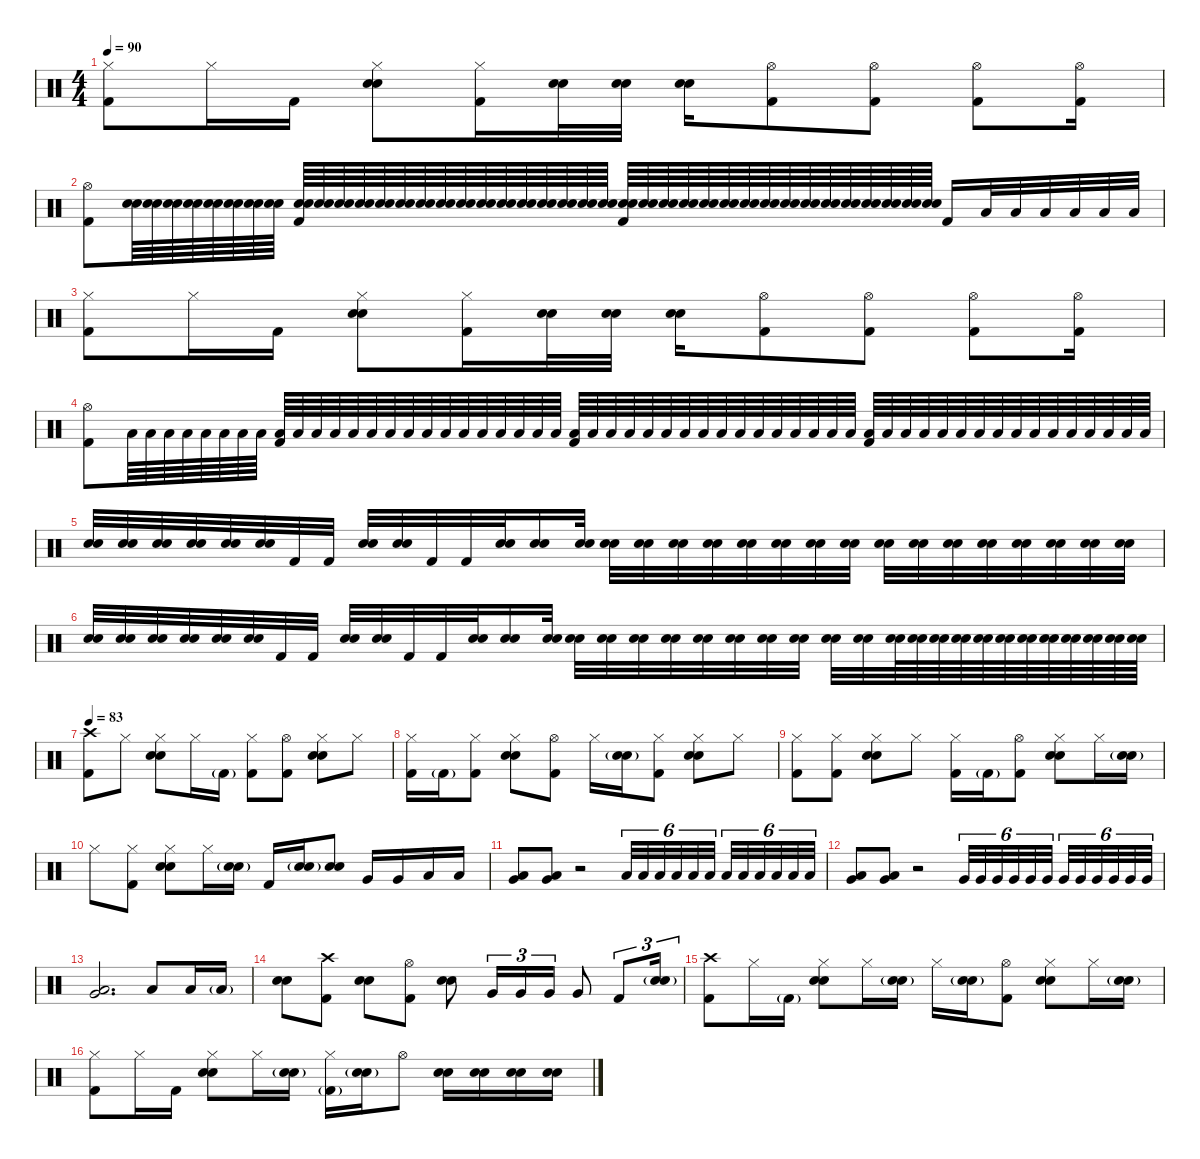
\defaultSystemsLayout 4
\hideDynamics
\bracketExtendMode nobrackets
\singleTrackTrackNamePolicy hidden
\multiTrackTrackNamePolicy hidden
\firstSystemTrackNameMode fullname
\firstSystemTrackNameOrientation horizontal
\otherSystemsTrackNameOrientation horizontal
\track ("Batterie" "drm.") {instrument percussion}
\staff {score}
\articulation defaults
\ts (4 4)
\tempo 90
\clef neutral
\ks c
("Hi-Hat (closed)" "Kick (hit) 2").8{dy f beam Down} "Hi-Hat (closed)".16{beam Down} "Kick (hit) 2".16{dy mf beam Down} ("Hi-Hat (closed)" "Snare (hit) 2" "Snare (hit) 2").8{dy f beam Down} ("Hi-Hat (closed)" "Kick (hit) 2").16{beam Down} ("Snare (hit) 2" "Snare (hit) 2").32{dy p beam Down} ("Snare (hit) 2" "Snare (hit) 2").32{dy mp beam Down} ("Snare (hit) 2" "Snare (hit) 2").16{dy f beam Down} ("Hi-Hat (open)" "Kick (hit) 2").8{beam Down} ("Hi-Hat (open)" "Kick (hit) 2").8{beam Down} ("Hi-Hat (open)" "Kick (hit) 2").8{beam Down} ("Hi-Hat (open)" "Kick (hit) 2").16{beam Down} |
("Hi-Hat (open)" "Kick (hit) 2").8{beam Down} ("Snare (hit) 2" "Snare (hit) 2").64{dy pp beam Down} ("Snare (hit) 2" "Snare (hit) 2").64{beam Down} ("Snare (hit) 2" "Snare (hit) 2").64{beam Down} ("Snare (hit) 2" "Snare (hit) 2").64{beam Down} ("Snare (hit) 2" "Snare (hit) 2").64{beam Down} ("Snare (hit) 2" "Snare (hit) 2").64{beam Down} ("Snare (hit) 2" "Snare (hit) 2").64{beam Down} ("Snare (hit) 2" "Snare (hit) 2").64{beam Down} ("Snare (hit) 2" "Snare (hit) 2" "Kick (hit) 2").64{beam Up} ("Snare (hit) 2" "Snare (hit) 2").64{beam Up} ("Snare (hit) 2" "Snare (hit) 2").64{beam Up} ("Snare (hit) 2" "Snare (hit) 2").64{beam Up} ("Snare (hit) 2" "Snare (hit) 2").64{dy p beam Up} ("Snare (hit) 2" "Snare (hit) 2").64{beam Up} ("Snare (hit) 2" "Snare (hit) 2").64{beam Up} ("Snare (hit) 2" "Snare (hit) 2").64{beam Up} ("Snare (hit) 2" "Snare (hit) 2").64{beam Up} ("Snare (hit) 2" "Snare (hit) 2").64{beam Up} ("Snare (hit) 2" "Snare (hit) 2").64{beam Up} ("Snare (hit) 2" "Snare (hit) 2").64{beam Up} ("Snare (hit) 2" "Snare (hit) 2").64{beam Up} ("Snare (hit) 2" "Snare (hit) 2").64{beam Up} ("Snare (hit) 2" "Snare (hit) 2").64{beam Up} ("Snare (hit) 2" "Snare (hit) 2").64{beam Up} ("Snare (hit) 2" "Snare (hit) 2" "Kick (hit) 2").64{beam Up} ("Snare (hit) 2" "Snare (hit) 2").64{beam Up} ("Snare (hit) 2" "Snare (hit) 2").64{beam Up} ("Snare (hit) 2" "Snare (hit) 2").64{dy mp beam Up} ("Snare (hit) 2" "Snare (hit) 2").64{beam Up} ("Snare (hit) 2" "Snare (hit) 2").64{beam Up} ("Snare (hit) 2" "Snare (hit) 2").64{dy mf beam Up} ("Snare (hit) 2" "Snare (hit) 2").64{beam Up} ("Snare (hit) 2" "Snare (hit) 2").64{beam Up} ("Snare (hit) 2" "Snare (hit) 2").64{beam Up} ("Snare (hit) 2" "Snare (hit) 2").64{beam Up} ("Snare (hit) 2" "Snare (hit) 2").64{beam Up} ("Snare (hit) 2" "Snare (hit) 2").64{dy f beam Up} ("Snare (hit) 2" "Snare (hit) 2").64{beam Up} ("Snare (hit) 2" "Snare (hit) 2").64{beam Up} ("Snare (hit) 2" "Snare (hit) 2").64{beam Up} "Kick (hit) 2".16{dy mf beam Up} "Low Floor Tom (hit)".32{dy fff beam Up} "Low Floor Tom (hit)".32{beam Up} "Low Tom (hit)".32{beam Up} "Low Tom (hit)".32{beam Up} "Low Tom (hit)".32{beam Up} "Low Tom (hit)".32{beam Up} |
("Hi-Hat (closed)" "Kick (hit) 2").8{dy f beam Down} "Hi-Hat (closed)".16{beam Down} "Kick (hit) 2".16{dy mf beam Down} ("Hi-Hat (closed)" "Snare (hit) 2" "Snare (hit) 2").8{dy f beam Down} ("Hi-Hat (closed)" "Kick (hit) 2").16{beam Down} ("Snare (hit) 2" "Snare (hit) 2").32{dy p beam Down} ("Snare (hit) 2" "Snare (hit) 2").32{dy mp beam Down} ("Snare (hit) 2" "Snare (hit) 2").16{dy f beam Down} ("Hi-Hat (open)" "Kick (hit) 2").8{beam Down} ("Hi-Hat (open)" "Kick (hit) 2").8{beam Down} ("Hi-Hat (open)" "Kick (hit) 2").8{beam Down} ("Hi-Hat (open)" "Kick (hit) 2").16{beam Down} |
("Hi-Hat (open)" "Kick (hit) 2").8{beam Down} "Low Floor Tom (hit)".64{dy pp beam Down} "Low Floor Tom (hit)".64{beam Down} "Low Floor Tom (hit)".64{beam Down} "Low Floor Tom (hit)".64{beam Down} "Low Floor Tom (hit)".64{beam Down} "Low Floor Tom (hit)".64{beam Down} "Low Floor Tom (hit)".64{beam Down} "Low Floor Tom (hit)".64{beam Down} ("Low Floor Tom (hit)" "Kick (hit) 2").64{beam Up} "Low Floor Tom (hit)".64{dy p beam Up} "Low Floor Tom (hit)".64{beam Up} "Low Floor Tom (hit)".64{beam Up} "Low Floor Tom (hit)".64{beam Up} "Low Floor Tom (hit)".64{beam Up} "Low Floor Tom (hit)".64{beam Up} "Low Floor Tom (hit)".64{beam Up} "Low Floor Tom (hit)".64{beam Up} "Low Floor Tom (hit)".64{beam Up} "Low Floor Tom (hit)".64{beam Up} "Low Floor Tom (hit)".64{beam Up} "Low Floor Tom (hit)".64{beam Up} "Low Floor Tom (hit)".64{dy mp beam Up} "Low Floor Tom (hit)".64{beam Up} "Low Floor Tom (hit)".64{beam Up} ("Low Floor Tom (hit)" "Kick (hit) 2").64{beam Up} "Low Floor Tom (hit)".64{beam Up} "Low Floor Tom (hit)".64{beam Up} "Low Floor Tom (hit)".64{beam Up} "Low Floor Tom (hit)".64{beam Up} "Low Floor Tom (hit)".64{beam Up} "Low Floor Tom (hit)".64{beam Up} "Low Floor Tom (hit)".64{beam Up} "Low Floor Tom (hit)".64{beam Up} "Low Floor Tom (hit)".64{beam Up} "Low Floor Tom (hit)".64{dy mf beam Up} "Low Floor Tom (hit)".64{beam Up} "Low Floor Tom (hit)".64{beam Up} "Low Floor Tom (hit)".64{beam Up} "Low Floor Tom (hit)".64{beam Up} "Low Floor Tom (hit)".64{beam Up} ("Low Floor Tom (hit)" "Kick (hit) 2").64{beam Up} "Low Floor Tom (hit)".64{beam Up} "Low Floor Tom (hit)".64{beam Up} "Low Floor Tom (hit)".64{beam Up} "Low Floor Tom (hit)".64{beam Up} "Low Floor Tom (hit)".64{beam Up} "Low Floor Tom (hit)".64{beam Up} "Low Floor Tom (hit)".64{dy f beam Up} "Low Floor Tom (hit)".64{beam Up} "Low Floor Tom (hit)".64{beam Up} "Low Floor Tom (hit)".64{beam Up} "Low Floor Tom (hit)".64{beam Up} "Low Floor Tom (hit)".64{beam Up} "Low Floor Tom (hit)".64{beam Up} "Low Floor Tom (hit)".64{beam Up} "Low Floor Tom (hit)".64{beam Up} |
("Snare (hit) 2" "Snare (hit) 2").32{beam Up} ("Snare (hit) 2" "Snare (hit) 2").32{beam Up} ("Snare (hit) 2" "Snare (hit) 2").32{beam Up} ("Snare (hit) 2" "Snare (hit) 2").32{beam Up} ("Snare (hit) 2" "Snare (hit) 2").32{beam Up} ("Snare (hit) 2" "Snare (hit) 2").32{beam Up} "Kick (hit) 2".32{dy mf beam Up} "Kick (hit) 2".32{beam Up} ("Snare (hit) 2" "Snare (hit) 2").32{dy f beam Up} ("Snare (hit) 2" "Snare (hit) 2").32{beam Up} "Kick (hit) 2".32{dy mf beam Up} "Kick (hit) 2".32{beam Up} ("Snare (hit) 2" "Snare (hit) 2").32{dy f beam Up} ("Snare (hit) 2" "Snare (hit) 2").16{beam Up} ("Snare (hit) 2" "Snare (hit) 2").32{dy mf beam Up} ("Snare (hit) 2" "Snare (hit) 2").32{dy f beam Down} ("Snare (hit) 2" "Snare (hit) 2").32{beam Down} ("Snare (hit) 2" "Snare (hit) 2").32{dy mf beam Down} ("Snare (hit) 2" "Snare (hit) 2").32{dy mp beam Down} ("Snare (hit) 2" "Snare (hit) 2").32{dy mf beam Down} ("Snare (hit) 2" "Snare (hit) 2").32{dy f beam Down} ("Snare (hit) 2" "Snare (hit) 2").32{beam Down} ("Snare (hit) 2" "Snare (hit) 2").32{dy mf beam Down} ("Snare (hit) 2" "Snare (hit) 2").32{dy mp beam Down} ("Snare (hit) 2" "Snare (hit) 2").32{dy mf beam Down} ("Snare (hit) 2" "Snare (hit) 2").32{dy f beam Down} ("Snare (hit) 2" "Snare (hit) 2").32{dy ff beam Down} ("Snare (hit) 2" "Snare (hit) 2").32{beam Down} ("Snare (hit) 2" "Snare (hit) 2").32{dy f beam Down} ("Snare (hit) 2" "Snare (hit) 2").32{dy mf beam Down} ("Snare (hit) 2" "Snare (hit) 2").32{dy mp beam Down} |
("Snare (hit) 2" "Snare (hit) 2").32{dy mf beam Up} ("Snare (hit) 2" "Snare (hit) 2").32{dy f beam Up} ("Snare (hit) 2" "Snare (hit) 2").32{beam Up} ("Snare (hit) 2" "Snare (hit) 2").32{beam Up} ("Snare (hit) 2" "Snare (hit) 2").32{beam Up} ("Snare (hit) 2" "Snare (hit) 2").32{beam Up} "Kick (hit) 2".32{dy mf beam Up} "Kick (hit) 2".32{beam Up} ("Snare (hit) 2" "Snare (hit) 2").32{dy f beam Up} ("Snare (hit) 2" "Snare (hit) 2").32{beam Up} "Kick (hit) 2".32{dy mf beam Up} "Kick (hit) 2".32{beam Up} ("Snare (hit) 2" "Snare (hit) 2").32{dy f beam Up} ("Snare (hit) 2" "Snare (hit) 2").16{beam Up} ("Snare (hit) 2" "Snare (hit) 2").32{dy mf beam Up} ("Snare (hit) 2" "Snare (hit) 2").32{dy f beam Down} ("Snare (hit) 2" "Snare (hit) 2").32{beam Down} ("Snare (hit) 2" "Snare (hit) 2").32{dy mf beam Down} ("Snare (hit) 2" "Snare (hit) 2").32{dy mp beam Down} ("Snare (hit) 2" "Snare (hit) 2").32{beam Down} ("Snare (hit) 2" "Snare (hit) 2").32{dy mf beam Down} ("Snare (hit) 2" "Snare (hit) 2").32{dy f beam Down} ("Snare (hit) 2" "Snare (hit) 2").32{dy ff beam Down} ("Snare (hit) 2" "Snare (hit) 2").32{dy f beam Down} ("Snare (hit) 2" "Snare (hit) 2").32{beam Down} ("Snare (hit) 2" "Snare (hit) 2").64{beam Down} ("Snare (hit) 2" "Snare (hit) 2").64{beam Down} ("Snare (hit) 2" "Snare (hit) 2").64{beam Down} ("Snare (hit) 2" "Snare (hit) 2").64{beam Down} ("Snare (hit) 2" "Snare (hit) 2").64{dy mf beam Down} ("Snare (hit) 2" "Snare (hit) 2").64{beam Down} ("Snare (hit) 2" "Snare (hit) 2").64{beam Down} ("Snare (hit) 2" "Snare (hit) 2").64{beam Down} ("Snare (hit) 2" "Snare (hit) 2").64{dy mp beam Down} ("Snare (hit) 2" "Snare (hit) 2").64{beam Down} ("Snare (hit) 2" "Snare (hit) 2").64{beam Down} ("Snare (hit) 2" "Snare (hit) 2").64{beam Down} |
\tempo 83
("Crash high (hit)" "Kick (hit) 2").8{beam Down} "Hi-Hat (closed)".8{dy f beam Down} ("Hi-Hat (closed)" "Snare (hit) 2" "Snare (hit) 2").8{beam Down} "Hi-Hat (closed)".16{beam Down} "Kick (hit) 2"{g}.16{dy mf beam Down} ("Hi-Hat (closed)" "Kick (hit) 2").8{dy f beam Down} ("Hi-Hat (open)" "Kick (hit) 2").8{dy mf beam Down} ("Hi-Hat (closed)" "Snare (hit) 2" "Snare (hit) 2").8{dy f beam Down} "Hi-Hat (closed)".8{beam Down} |
("Hi-Hat (closed)" "Kick (hit) 2").16{beam Down} "Kick (hit) 2"{g}.16{beam Down} ("Hi-Hat (closed)" "Kick (hit) 2").8{beam Down} ("Hi-Hat (closed)" "Snare (hit) 2" "Snare (hit) 2").8{beam Down} ("Hi-Hat (open)" "Kick (hit) 2").8{dy mf beam Down} "Hi-Hat (closed)".16{dy f beam Down} ("Snare (hit) 2"{g} "Snare (hit) 2"{g}).16{dy mf beam Down} ("Hi-Hat (closed)" "Kick (hit) 2").8{dy f beam Down} ("Hi-Hat (closed)" "Snare (hit) 2" "Snare (hit) 2").8{beam Down} "Hi-Hat (closed)".8{beam Down} |
("Hi-Hat (closed)" "Kick (hit) 2").8{beam Down} ("Hi-Hat (closed)" "Kick (hit) 2").8{beam Down} ("Hi-Hat (closed)" "Snare (hit) 2" "Snare (hit) 2").8{beam Down} "Hi-Hat (closed)".8{beam Down} ("Hi-Hat (closed)" "Kick (hit) 2").16{beam Down} "Kick (hit) 2"{g}.16{beam Down} ("Hi-Hat (open)" "Kick (hit) 2").8{dy mf beam Down} ("Hi-Hat (closed)" "Snare (hit) 2" "Snare (hit) 2").8{dy f beam Down} "Hi-Hat (closed)".16{beam Down} ("Snare (hit) 2"{g} "Snare (hit) 2"{g}).16{dy mf beam Down} |
"Hi-Hat (closed)".8{dy f beam Down} ("Hi-Hat (closed)" "Kick (hit) 2").8{beam Down} ("Hi-Hat (closed)" "Snare (hit) 2" "Snare (hit) 2").8{beam Down} "Hi-Hat (closed)".16{beam Down} ("Snare (hit) 2"{g} "Snare (hit) 2"{g}).16{beam Down} "Kick (hit) 2".16{dy mf beam Up} ("Snare (hit) 2"{g} "Snare (hit) 2"{g}).16{dy f beam Up} ("Snare (hit) 2" "Snare (hit) 2").8{dy mf beam Up} "Very Low Tom (hit)".16{dy f beam Up} "Very Low Tom (hit)".16{beam Up} "Low Floor Tom (hit)".16{beam Up} "Low Floor Tom (hit)".16{beam Up} |
("Very Low Tom (hit)" "Low Floor Tom (hit)").8{beam Up} ("Very Low Tom (hit)" "Low Floor Tom (hit)").8{beam Up} r.2{beam Up} "Low Floor Tom (hit)".32{tu (6 4) beam Up} "Low Floor Tom (hit)".32{tu (6 4) dy mf beam Up} "Low Floor Tom (hit)".32{tu (6 4) dy mp beam Up} "Low Floor Tom (hit)".32{tu (6 4) dy p beam Up} "Low Floor Tom (hit)".32{tu (6 4) beam Up} "Low Floor Tom (hit)".32{tu (6 4) beam Up} "Low Floor Tom (hit)".32{tu (6 4) beam Up} "Low Floor Tom (hit)".32{tu (6 4) beam Up} "Low Floor Tom (hit)".32{tu (6 4) dy mp beam Up} "Low Floor Tom (hit)".32{tu (6 4) dy mf beam Up} "Low Floor Tom (hit)".32{tu (6 4) beam Up} "Low Floor Tom (hit)".32{tu (6 4) dy f beam Up} |
("Very Low Tom (hit)" "Low Floor Tom (hit)").8{beam Up} ("Very Low Tom (hit)" "Low Floor Tom (hit)").8{beam Up} r.2{beam Up} "Very Low Tom (hit)".32{tu (6 4) beam Up} "Very Low Tom (hit)".32{tu (6 4) dy mf beam Up} "Very Low Tom (hit)".32{tu (6 4) dy mp beam Up} "Very Low Tom (hit)".32{tu (6 4) dy p beam Up} "Very Low Tom (hit)".32{tu (6 4) beam Up} "Very Low Tom (hit)".32{tu (6 4) beam Up} "Very Low Tom (hit)".32{tu (6 4) beam Up} "Very Low Tom (hit)".32{tu (6 4) beam Up} "Very Low Tom (hit)".32{tu (6 4) dy mp beam Up} "Very Low Tom (hit)".32{tu (6 4) dy mf beam Up} "Very Low Tom (hit)".32{tu (6 4) beam Up} "Very Low Tom (hit)".32{tu (6 4) dy f beam Up} |
("Very Low Tom (hit)" "Low Floor Tom (hit)").2{d beam Up} "Low Floor Tom (hit)".8{beam Up} "Low Floor Tom (hit)".16{beam Up} "Low Floor Tom (hit)"{g}.16{beam Up} |
("Snare (hit) 2" "Snare (hit) 2").8{dy mf beam Down} ("Crash high (hit)" "Kick (hit) 2").8{dy mp beam Down} ("Snare (hit) 2" "Snare (hit) 2").8{dy mf beam Down} ("Hi-Hat (open)" "Kick (hit) 2").8{beam Down} ("Snare (hit) 2" "Snare (hit) 2").8{dy mp beam Down} "Very Low Tom (hit)".16{tu (3 2) dy f beam Up} "Very Low Tom (hit)".16{tu (3 2) dy mf beam Up} "Very Low Tom (hit)".16{tu (3 2) beam Up} "Very Low Tom (hit)".8{beam Up} "Kick (hit) 2".8{tu (3 2) beam Up} ("Snare (hit) 2"{g} "Snare (hit) 2"{g}).16{tu (3 2) beam Up} |
("Crash high (hit)" "Kick (hit) 2").8{dy mp beam Down} "Hi-Hat (closed)".16{dy f beam Down} "Kick (hit) 2"{g}.16{beam Down} ("Hi-Hat (closed)" "Snare (hit) 2" "Snare (hit) 2").8{beam Down} "Hi-Hat (closed)".16{beam Down} ("Snare (hit) 2"{g} "Snare (hit) 2"{g}).16{dy mf beam Down} "Hi-Hat (closed)".16{dy f beam Down} ("Snare (hit) 2"{g} "Snare (hit) 2"{g}).16{dy mp beam Down} ("Hi-Hat (open)" "Kick (hit) 2").8{dy mf beam Down} ("Hi-Hat (closed)" "Snare (hit) 2" "Snare (hit) 2").8{dy f beam Down} "Hi-Hat (closed)".16{beam Down} ("Snare (hit) 2"{g} "Snare (hit) 2"{g}).16{dy mp beam Down} |
("Hi-Hat (closed)" "Kick (hit) 2").8{dy f beam Down} "Hi-Hat (closed)".16{beam Down} "Kick (hit) 2".16{dy mf beam Down} ("Hi-Hat (closed)" "Snare (hit) 2" "Snare (hit) 2").8{dy f beam Down} "Hi-Hat (closed)".16{beam Down} ("Snare (hit) 2"{g} "Snare (hit) 2"{g}).16{dy mf beam Down} ("Hi-Hat (closed)" "Kick (hit) 2"{g}).16{dy f beam Down} ("Snare (hit) 2"{g} "Snare (hit) 2"{g}).16{dy mp beam Down} "Hi-Hat (open)".8{beam Down} ("Snare (hit) 2" "Snare (hit) 2").16{beam Down} ("Snare (hit) 2" "Snare (hit) 2").16{beam Down} ("Snare (hit) 2" "Snare (hit) 2").16{beam Down} ("Snare (hit) 2" "Snare (hit) 2").16{dy mf beam Down}
